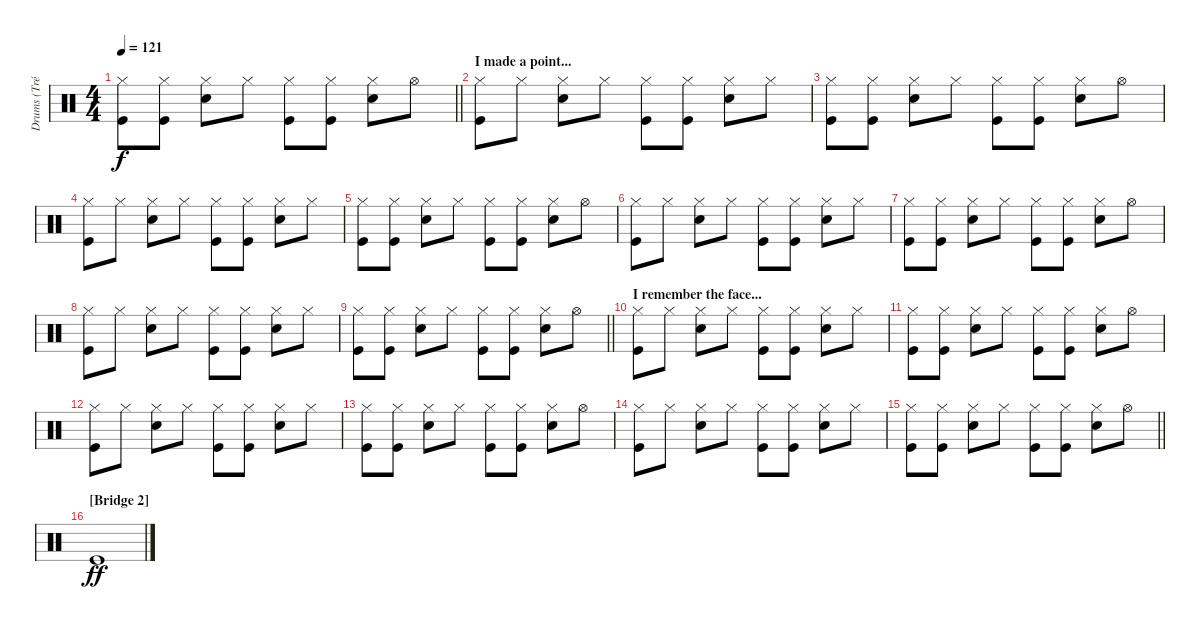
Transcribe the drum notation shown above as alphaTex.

\track ("Drums (Tré)" "Drums (Tré") {instrument percussion}
\staff {score}
\articulation defaults
\ts (4 4)
\tempo 121
\clef neutral
\barLineRight lightlight
\ks c
("Hi-Hat (closed)" "Kick (hit)").8{dy f} ("Hi-Hat (closed)" "Kick (hit)").8 ("Hi-Hat (closed)" "Snare (hit) 2").8 "Hi-Hat (closed)".8 ("Hi-Hat (closed)" "Kick (hit)").8 ("Hi-Hat (closed)" "Kick (hit)").8 ("Hi-Hat (closed)" "Snare (hit) 2").8 "Hi-Hat (open)".8 |
\section ("" "I made a point...")
("Hi-Hat (closed)" "Kick (hit)").8 "Hi-Hat (closed)".8 ("Hi-Hat (closed)" "Snare (hit) 2").8 "Hi-Hat (closed)".8 ("Hi-Hat (closed)" "Kick (hit)").8 ("Hi-Hat (closed)" "Kick (hit)").8 ("Hi-Hat (closed)" "Snare (hit) 2").8 "Hi-Hat (closed)".8 |
("Hi-Hat (closed)" "Kick (hit)").8 ("Hi-Hat (closed)" "Kick (hit)").8 ("Hi-Hat (closed)" "Snare (hit) 2").8 "Hi-Hat (closed)".8 ("Hi-Hat (closed)" "Kick (hit)").8 ("Hi-Hat (closed)" "Kick (hit)").8 ("Hi-Hat (closed)" "Snare (hit) 2").8 "Hi-Hat (open)".8 |
("Hi-Hat (closed)" "Kick (hit)").8 "Hi-Hat (closed)".8 ("Hi-Hat (closed)" "Snare (hit) 2").8 "Hi-Hat (closed)".8 ("Hi-Hat (closed)" "Kick (hit)").8 ("Hi-Hat (closed)" "Kick (hit)").8 ("Hi-Hat (closed)" "Snare (hit) 2").8 "Hi-Hat (closed)".8 |
("Hi-Hat (closed)" "Kick (hit)").8 ("Hi-Hat (closed)" "Kick (hit)").8 ("Hi-Hat (closed)" "Snare (hit) 2").8 "Hi-Hat (closed)".8 ("Hi-Hat (closed)" "Kick (hit)").8 ("Hi-Hat (closed)" "Kick (hit)").8 ("Hi-Hat (closed)" "Snare (hit) 2").8 "Hi-Hat (open)".8 |
("Hi-Hat (closed)" "Kick (hit)").8 "Hi-Hat (closed)".8 ("Hi-Hat (closed)" "Snare (hit) 2").8 "Hi-Hat (closed)".8 ("Hi-Hat (closed)" "Kick (hit)").8 ("Hi-Hat (closed)" "Kick (hit)").8 ("Hi-Hat (closed)" "Snare (hit) 2").8 "Hi-Hat (closed)".8 |
("Hi-Hat (closed)" "Kick (hit)").8 ("Hi-Hat (closed)" "Kick (hit)").8 ("Hi-Hat (closed)" "Snare (hit) 2").8 "Hi-Hat (closed)".8 ("Hi-Hat (closed)" "Kick (hit)").8 ("Hi-Hat (closed)" "Kick (hit)").8 ("Hi-Hat (closed)" "Snare (hit) 2").8 "Hi-Hat (open)".8 |
("Hi-Hat (closed)" "Kick (hit)").8 "Hi-Hat (closed)".8 ("Hi-Hat (closed)" "Snare (hit) 2").8 "Hi-Hat (closed)".8 ("Hi-Hat (closed)" "Kick (hit)").8 ("Hi-Hat (closed)" "Kick (hit)").8 ("Hi-Hat (closed)" "Snare (hit) 2").8 "Hi-Hat (closed)".8 |
\barLineRight lightlight
("Hi-Hat (closed)" "Kick (hit)").8 ("Hi-Hat (closed)" "Kick (hit)").8 ("Hi-Hat (closed)" "Snare (hit) 2").8 "Hi-Hat (closed)".8 ("Hi-Hat (closed)" "Kick (hit)").8 ("Hi-Hat (closed)" "Kick (hit)").8 ("Hi-Hat (closed)" "Snare (hit) 2").8 "Hi-Hat (open)".8 |
\section ("" "I remember the face...")
("Hi-Hat (closed)" "Kick (hit)").8 "Hi-Hat (closed)".8 ("Hi-Hat (closed)" "Snare (hit) 2").8 "Hi-Hat (closed)".8 ("Hi-Hat (closed)" "Kick (hit)").8 ("Hi-Hat (closed)" "Kick (hit)").8 ("Hi-Hat (closed)" "Snare (hit) 2").8 "Hi-Hat (closed)".8 |
("Hi-Hat (closed)" "Kick (hit)").8 ("Hi-Hat (closed)" "Kick (hit)").8 ("Hi-Hat (closed)" "Snare (hit) 2").8 "Hi-Hat (closed)".8 ("Hi-Hat (closed)" "Kick (hit)").8 ("Hi-Hat (closed)" "Kick (hit)").8 ("Hi-Hat (closed)" "Snare (hit) 2").8 "Hi-Hat (open)".8 |
("Hi-Hat (closed)" "Kick (hit)").8 "Hi-Hat (closed)".8 ("Hi-Hat (closed)" "Snare (hit) 2").8 "Hi-Hat (closed)".8 ("Hi-Hat (closed)" "Kick (hit)").8 ("Hi-Hat (closed)" "Kick (hit)").8 ("Hi-Hat (closed)" "Snare (hit) 2").8 "Hi-Hat (closed)".8 |
("Hi-Hat (closed)" "Kick (hit)").8 ("Hi-Hat (closed)" "Kick (hit)").8 ("Hi-Hat (closed)" "Snare (hit) 2").8 "Hi-Hat (closed)".8 ("Hi-Hat (closed)" "Kick (hit)").8 ("Hi-Hat (closed)" "Kick (hit)").8 ("Hi-Hat (closed)" "Snare (hit) 2").8 "Hi-Hat (open)".8 |
("Hi-Hat (closed)" "Kick (hit)").8 "Hi-Hat (closed)".8 ("Hi-Hat (closed)" "Snare (hit) 2").8 "Hi-Hat (closed)".8 ("Hi-Hat (closed)" "Kick (hit)").8 ("Hi-Hat (closed)" "Kick (hit)").8 ("Hi-Hat (closed)" "Snare (hit) 2").8 "Hi-Hat (closed)".8 |
\barLineRight lightlight
("Hi-Hat (closed)" "Kick (hit)").8 ("Hi-Hat (closed)" "Kick (hit)").8 ("Hi-Hat (closed)" "Snare (hit) 2").8 "Hi-Hat (closed)".8 ("Hi-Hat (closed)" "Kick (hit)").8 ("Hi-Hat (closed)" "Kick (hit)").8 ("Hi-Hat (closed)" "Snare (hit) 2").8 "Hi-Hat (open)".8 |
\section ("" "[Bridge 2]")
"Kick (hit)".1{dy ff}
